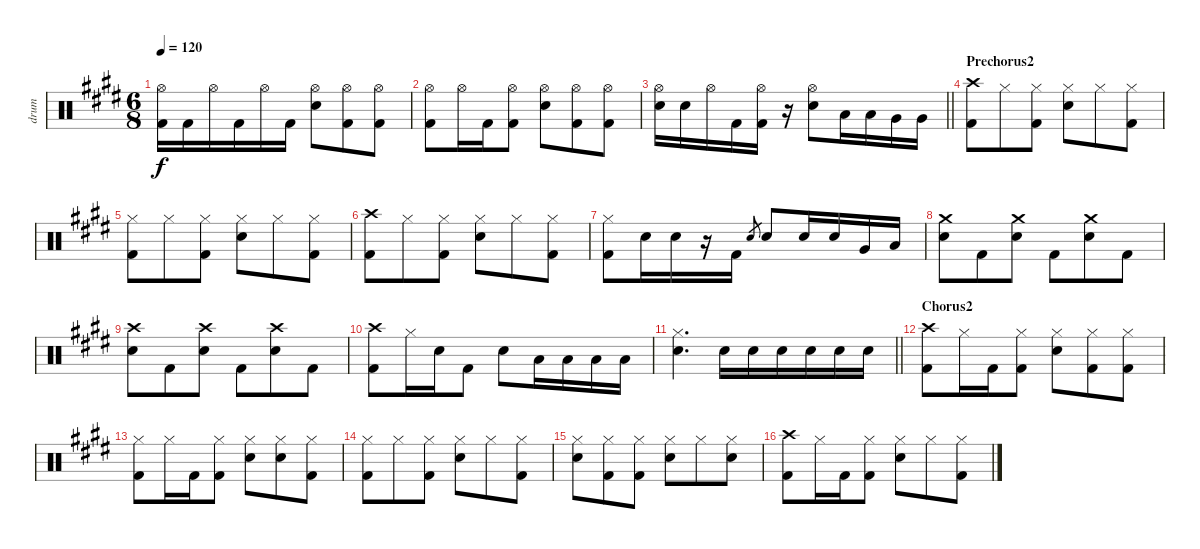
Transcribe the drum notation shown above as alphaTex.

\track ("drum" "drum") {instrument percussion}
\staff {score}
\articulation defaults
\ts (6 8)
\tempo 120
\clef neutral
\ks e
("Hi-Hat (open)" "Kick (hit) 2").16{dy f} "Kick (hit) 2".16 "Hi-Hat (open)".16 "Kick (hit) 2".16 "Hi-Hat (open)".16 "Kick (hit) 2".16 ("Hi-Hat (open)" "Snare (hit) 2").8 ("Hi-Hat (open)" "Kick (hit) 2").8 ("Hi-Hat (open)" "Kick (hit) 2").8 |
("Hi-Hat (open)" "Kick (hit) 2").8 "Hi-Hat (open)".16 "Kick (hit) 2".16 ("Hi-Hat (open)" "Kick (hit) 2").8 ("Hi-Hat (open)" "Snare (hit) 2").8 ("Hi-Hat (open)" "Kick (hit) 2").8 ("Hi-Hat (open)" "Kick (hit) 2").8 |
\barLineRight lightlight
("Hi-Hat (open)" "Snare (hit) 2").16 "Snare (hit) 2".16 "Hi-Hat (open)".16 "Kick (hit) 2".16 ("Hi-Hat (open)" "Kick (hit) 2").16 r.16 ("Hi-Hat (open)" "Snare (hit) 2").8 "Low Tom (hit)".16 "Low Tom (hit)".16 "Very Low Tom (hit)".16 "Very Low Tom (hit)".16 |
\section ("" "Prechorus2")
("Crash high (hit)" "Kick (hit) 2").8 "Hi-Hat (closed)".8 ("Hi-Hat (closed)" "Kick (hit) 2").8 ("Hi-Hat (closed)" "Snare (hit) 2").8 "Hi-Hat (closed)".8 ("Hi-Hat (closed)" "Kick (hit) 2").8 |
("Hi-Hat (closed)" "Kick (hit) 2").8 "Hi-Hat (closed)".8 ("Hi-Hat (closed)" "Kick (hit) 2").8 ("Hi-Hat (closed)" "Snare (hit) 2").8 "Hi-Hat (closed)".8 ("Hi-Hat (closed)" "Kick (hit) 2").8 |
("Crash high (hit)" "Kick (hit) 2").8 "Hi-Hat (closed)".8 ("Hi-Hat (closed)" "Kick (hit) 2").8 ("Hi-Hat (closed)" "Snare (hit) 2").8 "Hi-Hat (closed)".8 ("Hi-Hat (closed)" "Kick (hit) 2").8 |
("Hi-Hat (closed)" "Kick (hit) 2").8 "Snare (hit) 2".16 "Snare (hit) 2".16 r.16 "Kick (hit) 2".16 "Snare (hit) 2".8{gr} "Snare (hit) 2".8 "Snare (hit) 2".16 "Snare (hit) 2".16 "Very Low Tom (hit)".16 "Low Floor Tom (hit)".16 |
("Crash medium (hit)" "Snare (hit) 2").8 "Kick (hit) 2".8 ("Crash medium (hit)" "Snare (hit) 2").8 "Kick (hit) 2".8 ("Crash medium (hit)" "Snare (hit) 2").8 "Kick (hit) 2".8 |
("Crash high (hit)" "Snare (hit) 2").8 "Kick (hit) 2".8 ("Crash high (hit)" "Snare (hit) 2").8 "Kick (hit) 2".8 ("Crash high (hit)" "Snare (hit) 2").8 "Kick (hit) 2".8 |
("Crash high (hit)" "Kick (hit) 2").8 "Hi-Hat (closed)".16 "Snare (hit) 2".16 "Kick (hit) 2".8 "Snare (hit) 2".8 "Low Tom (hit)".16 "Low Tom (hit)".16 "Low Floor Tom (hit)".16 "Low Floor Tom (hit)".16 |
\barLineRight lightlight
("Hi-Hat (closed)" "Snare (hit) 2").4{d} "Snare (hit) 2".16 "Snare (hit) 2".16 "Snare (hit) 2".16 "Snare (hit) 2".16 "Snare (hit) 2".16 "Snare (hit) 2".16 |
\section ("" "Chorus2")
("Crash high (hit)" "Kick (hit) 2").8 "Hi-Hat (closed)".16 "Kick (hit) 2".16 ("Hi-Hat (closed)" "Kick (hit) 2").8 ("Hi-Hat (closed)" "Snare (hit) 2").8 ("Hi-Hat (closed)" "Kick (hit) 2").8 ("Hi-Hat (closed)" "Kick (hit) 2").8 |
("Hi-Hat (closed)" "Kick (hit) 2").8 "Hi-Hat (closed)".16 "Kick (hit) 2".16 ("Hi-Hat (closed)" "Kick (hit) 2").8 ("Hi-Hat (closed)" "Snare (hit) 2").8 ("Hi-Hat (closed)" "Snare (hit) 2").8 ("Hi-Hat (closed)" "Kick (hit) 2").8 |
("Hi-Hat (closed)" "Kick (hit) 2").8 "Hi-Hat (closed)".8 ("Hi-Hat (closed)" "Kick (hit) 2").8 ("Hi-Hat (closed)" "Snare (hit) 2").8 "Hi-Hat (closed)".8 ("Hi-Hat (closed)" "Kick (hit) 2").8 |
("Hi-Hat (closed)" "Snare (hit) 2").8 ("Hi-Hat (closed)" "Kick (hit) 2").8 ("Hi-Hat (closed)" "Kick (hit) 2").8 ("Hi-Hat (closed)" "Snare (hit) 2").8 "Hi-Hat (closed)".8 ("Hi-Hat (closed)" "Snare (hit) 2").8 |
("Crash high (hit)" "Kick (hit) 2").8 "Hi-Hat (closed)".16 "Kick (hit) 2".16 ("Hi-Hat (closed)" "Kick (hit) 2").8 ("Hi-Hat (closed)" "Snare (hit) 2").8 "Hi-Hat (closed)".8 ("Hi-Hat (closed)" "Kick (hit) 2").8
